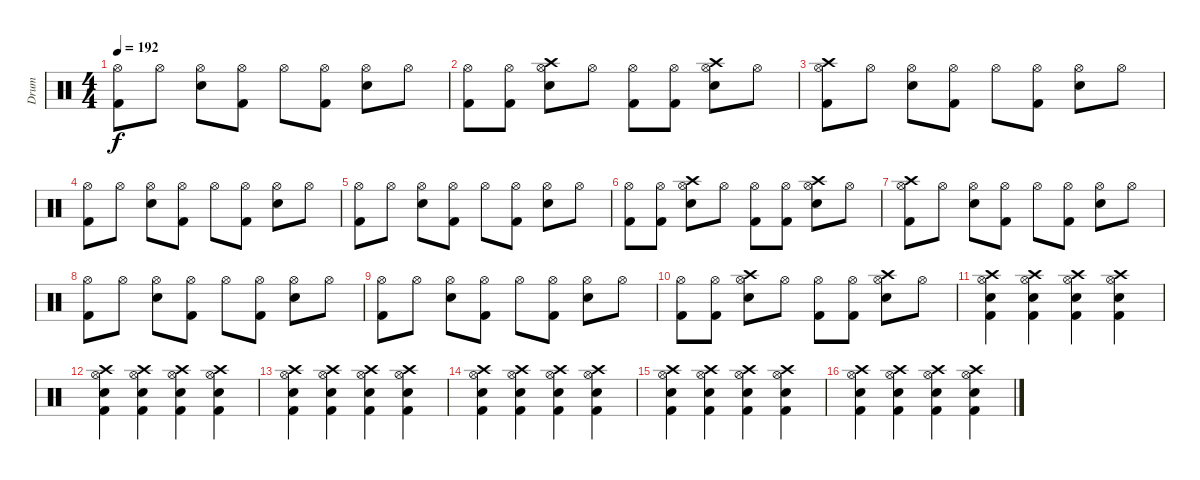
\track ("Drum" "Drum") {instrument percussion}
\staff {score}
\articulation defaults
\ts (4 4)
\tempo 192
\clef neutral
\ks c
("Kick (hit) 2" "Hi-Hat (open)").8{dy f} "Hi-Hat (open)".8 ("Electric Snare (hit)" "Hi-Hat (open)").8 ("Kick (hit) 2" "Hi-Hat (open)").8 "Hi-Hat (open)".8 ("Kick (hit) 2" "Hi-Hat (open)").8 ("Electric Snare (hit)" "Hi-Hat (open)").8 "Hi-Hat (open)".8 |
("Kick (hit) 2" "Hi-Hat (open)").8 ("Kick (hit) 2" "Hi-Hat (open)").8 ("Crash high (hit)" "Electric Snare (hit)" "Hi-Hat (open)").8 "Hi-Hat (open)".8 ("Kick (hit) 2" "Hi-Hat (open)").8 ("Kick (hit) 2" "Hi-Hat (open)").8 ("Crash high (hit)" "Electric Snare (hit)" "Hi-Hat (open)").8 "Hi-Hat (open)".8 |
("Crash high (hit)" "Kick (hit) 2" "Hi-Hat (open)").8 "Hi-Hat (open)".8 ("Electric Snare (hit)" "Hi-Hat (open)").8 ("Kick (hit) 2" "Hi-Hat (open)").8 "Hi-Hat (open)".8 ("Kick (hit) 2" "Hi-Hat (open)").8 ("Electric Snare (hit)" "Hi-Hat (open)").8 "Hi-Hat (open)".8 |
("Kick (hit) 2" "Hi-Hat (open)").8 "Hi-Hat (open)".8 ("Electric Snare (hit)" "Hi-Hat (open)").8 ("Kick (hit) 2" "Hi-Hat (open)").8 "Hi-Hat (open)".8 ("Kick (hit) 2" "Hi-Hat (open)").8 ("Electric Snare (hit)" "Hi-Hat (open)").8 "Hi-Hat (open)".8 |
("Kick (hit) 2" "Hi-Hat (open)").8 "Hi-Hat (open)".8 ("Electric Snare (hit)" "Hi-Hat (open)").8 ("Kick (hit) 2" "Hi-Hat (open)").8 "Hi-Hat (open)".8 ("Kick (hit) 2" "Hi-Hat (open)").8 ("Electric Snare (hit)" "Hi-Hat (open)").8 "Hi-Hat (open)".8 |
("Kick (hit) 2" "Hi-Hat (open)").8 ("Kick (hit) 2" "Hi-Hat (open)").8 ("Crash high (hit)" "Electric Snare (hit)" "Hi-Hat (open)").8 "Hi-Hat (open)".8 ("Kick (hit) 2" "Hi-Hat (open)").8 ("Kick (hit) 2" "Hi-Hat (open)").8 ("Crash high (hit)" "Electric Snare (hit)" "Hi-Hat (open)").8 "Hi-Hat (open)".8 |
("Crash high (hit)" "Kick (hit) 2" "Hi-Hat (open)").8 "Hi-Hat (open)".8 ("Electric Snare (hit)" "Hi-Hat (open)").8 ("Kick (hit) 2" "Hi-Hat (open)").8 "Hi-Hat (open)".8 ("Kick (hit) 2" "Hi-Hat (open)").8 ("Electric Snare (hit)" "Hi-Hat (open)").8 "Hi-Hat (open)".8 |
("Kick (hit) 2" "Hi-Hat (open)").8 "Hi-Hat (open)".8 ("Electric Snare (hit)" "Hi-Hat (open)").8 ("Kick (hit) 2" "Hi-Hat (open)").8 "Hi-Hat (open)".8 ("Kick (hit) 2" "Hi-Hat (open)").8 ("Electric Snare (hit)" "Hi-Hat (open)").8 "Hi-Hat (open)".8 |
("Kick (hit) 2" "Hi-Hat (open)").8 "Hi-Hat (open)".8 ("Electric Snare (hit)" "Hi-Hat (open)").8 ("Kick (hit) 2" "Hi-Hat (open)").8 "Hi-Hat (open)".8 ("Kick (hit) 2" "Hi-Hat (open)").8 ("Electric Snare (hit)" "Hi-Hat (open)").8 "Hi-Hat (open)".8 |
("Kick (hit) 2" "Hi-Hat (open)").8 ("Kick (hit) 2" "Hi-Hat (open)").8 ("Crash high (hit)" "Electric Snare (hit)" "Hi-Hat (open)").8 "Hi-Hat (open)".8 ("Kick (hit) 2" "Hi-Hat (open)").8 ("Kick (hit) 2" "Hi-Hat (open)").8 ("Crash high (hit)" "Electric Snare (hit)" "Hi-Hat (open)").8 "Hi-Hat (open)".8 |
("Electric Snare (hit)" "Crash high (hit)" "Kick (hit) 2" "Hi-Hat (open)").4 ("Electric Snare (hit)" "Crash high (hit)" "Kick (hit) 2" "Hi-Hat (open)").4 ("Electric Snare (hit)" "Crash high (hit)" "Kick (hit) 2" "Hi-Hat (open)").4 ("Electric Snare (hit)" "Crash high (hit)" "Kick (hit) 2" "Hi-Hat (open)").4 |
("Electric Snare (hit)" "Crash high (hit)" "Kick (hit) 2" "Hi-Hat (open)").4 ("Electric Snare (hit)" "Crash high (hit)" "Kick (hit) 2" "Hi-Hat (open)").4 ("Electric Snare (hit)" "Crash high (hit)" "Kick (hit) 2" "Hi-Hat (open)").4 ("Electric Snare (hit)" "Crash high (hit)" "Kick (hit) 2" "Hi-Hat (open)").4 |
("Electric Snare (hit)" "Crash high (hit)" "Kick (hit) 2" "Hi-Hat (open)").4 ("Electric Snare (hit)" "Crash high (hit)" "Kick (hit) 2" "Hi-Hat (open)").4 ("Electric Snare (hit)" "Crash high (hit)" "Kick (hit) 2" "Hi-Hat (open)").4 ("Electric Snare (hit)" "Crash high (hit)" "Kick (hit) 2" "Hi-Hat (open)").4 |
("Electric Snare (hit)" "Crash high (hit)" "Kick (hit) 2" "Hi-Hat (open)").4 ("Electric Snare (hit)" "Crash high (hit)" "Kick (hit) 2" "Hi-Hat (open)").4 ("Electric Snare (hit)" "Crash high (hit)" "Kick (hit) 2" "Hi-Hat (open)").4 ("Electric Snare (hit)" "Crash high (hit)" "Kick (hit) 2" "Hi-Hat (open)").4 |
("Electric Snare (hit)" "Crash high (hit)" "Kick (hit) 2" "Hi-Hat (open)").4 ("Electric Snare (hit)" "Crash high (hit)" "Kick (hit) 2" "Hi-Hat (open)").4 ("Electric Snare (hit)" "Crash high (hit)" "Kick (hit) 2" "Hi-Hat (open)").4 ("Electric Snare (hit)" "Crash high (hit)" "Kick (hit) 2" "Hi-Hat (open)").4 |
("Electric Snare (hit)" "Crash high (hit)" "Kick (hit) 2" "Hi-Hat (open)").4 ("Electric Snare (hit)" "Crash high (hit)" "Kick (hit) 2" "Hi-Hat (open)").4 ("Electric Snare (hit)" "Crash high (hit)" "Kick (hit) 2" "Hi-Hat (open)").4 ("Electric Snare (hit)" "Crash high (hit)" "Kick (hit) 2" "Hi-Hat (open)").4
